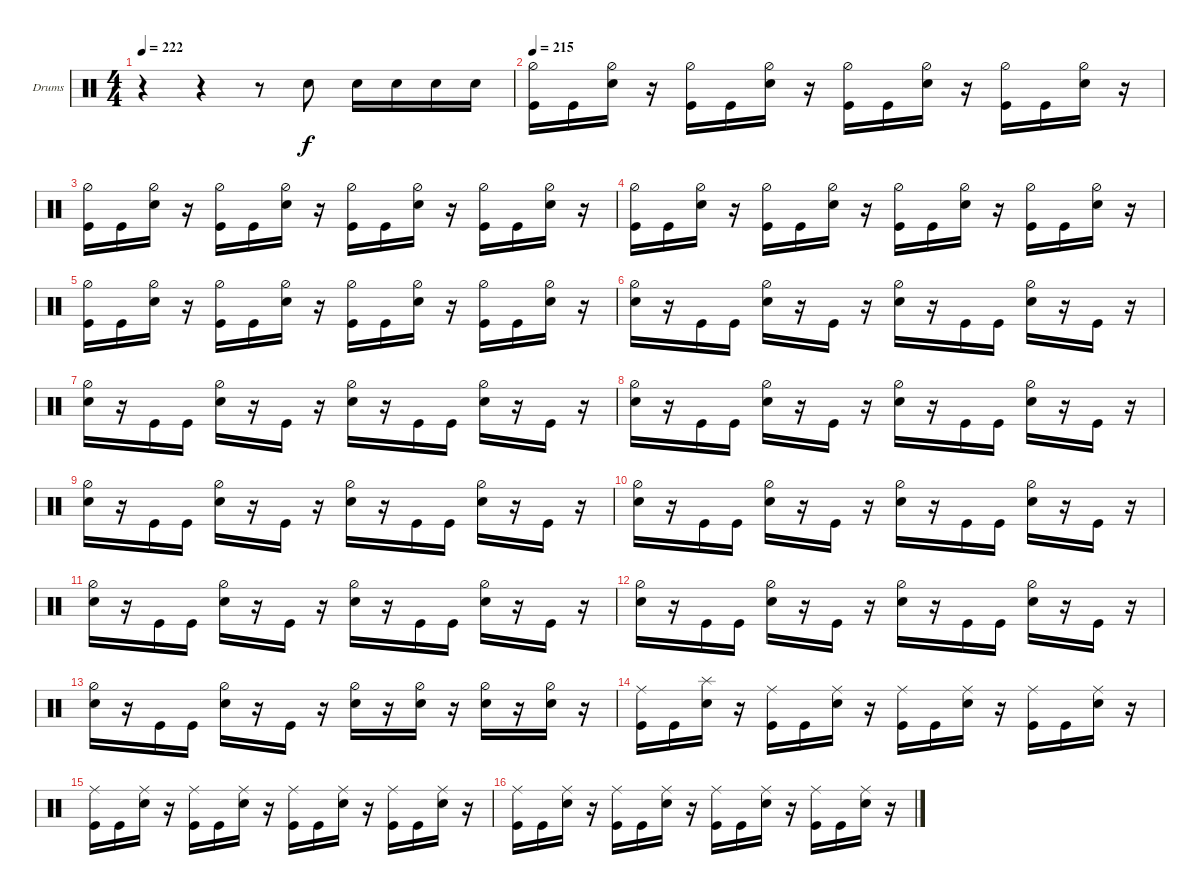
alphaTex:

\bracketExtendMode groupsimilarinstruments
\firstSystemTrackNameOrientation horizontal
\otherSystemsTrackNameOrientation horizontal
\track ("Drumkit" "Drums") {instrument percussion}
\staff {score}
\articulation defaults
\ts (4 4)
\tempo 222
\clef neutral
\ks c
r.4{dy f} r.4 r.8 "Snare (hit) 2".8 "Snare (hit) 2".16 "Snare (hit) 2".16 "Snare (hit) 2".16 "Snare (hit) 2".16 |
\tempo 215
("Kick (hit)" "Hi-Hat (half)").16 "Kick (hit)".16 ("Snare (hit) 2" "Hi-Hat (half)").16 r.16 ("Kick (hit)" "Hi-Hat (half)").16 "Kick (hit)".16 ("Snare (hit) 2" "Hi-Hat (half)").16 r.16 ("Kick (hit)" "Hi-Hat (half)").16 "Kick (hit)".16 ("Snare (hit) 2" "Hi-Hat (half)").16 r.16 ("Kick (hit)" "Hi-Hat (half)").16 "Kick (hit)".16 ("Snare (hit) 2" "Hi-Hat (half)").16 r.16 |
("Kick (hit)" "Hi-Hat (half)").16 "Kick (hit)".16 ("Snare (hit) 2" "Hi-Hat (half)").16 r.16 ("Kick (hit)" "Hi-Hat (half)").16 "Kick (hit)".16 ("Snare (hit) 2" "Hi-Hat (half)").16 r.16 ("Kick (hit)" "Hi-Hat (half)").16 "Kick (hit)".16 ("Snare (hit) 2" "Hi-Hat (half)").16 r.16 ("Kick (hit)" "Hi-Hat (half)").16 "Kick (hit)".16 ("Snare (hit) 2" "Hi-Hat (half)").16 r.16 |
("Kick (hit)" "Hi-Hat (half)").16 "Kick (hit)".16 ("Snare (hit) 2" "Hi-Hat (half)").16 r.16 ("Kick (hit)" "Hi-Hat (half)").16 "Kick (hit)".16 ("Snare (hit) 2" "Hi-Hat (half)").16 r.16 ("Kick (hit)" "Hi-Hat (half)").16 "Kick (hit)".16 ("Snare (hit) 2" "Hi-Hat (half)").16 r.16 ("Kick (hit)" "Hi-Hat (half)").16 "Kick (hit)".16 ("Snare (hit) 2" "Hi-Hat (half)").16 r.16 |
("Kick (hit)" "Hi-Hat (half)").16 "Kick (hit)".16 ("Snare (hit) 2" "Hi-Hat (half)").16 r.16 ("Kick (hit)" "Hi-Hat (half)").16 "Kick (hit)".16 ("Snare (hit) 2" "Hi-Hat (half)").16 r.16 ("Kick (hit)" "Hi-Hat (half)").16 "Kick (hit)".16 ("Snare (hit) 2" "Hi-Hat (half)").16 r.16 ("Kick (hit)" "Hi-Hat (half)").16 "Kick (hit)".16 ("Snare (hit) 2" "Hi-Hat (half)").16 r.16 |
("Snare (hit) 2" "Hi-Hat (half)").16 r.16 "Kick (hit)".16 "Kick (hit)".16 ("Snare (hit) 2" "Hi-Hat (half)").16 r.16 "Kick (hit)".16 r.16 ("Snare (hit) 2" "Hi-Hat (half)").16 r.16 "Kick (hit)".16 "Kick (hit)".16 ("Snare (hit) 2" "Hi-Hat (half)").16 r.16 "Kick (hit)".16 r.16 |
("Snare (hit) 2" "Hi-Hat (half)").16 r.16 "Kick (hit)".16 "Kick (hit)".16 ("Snare (hit) 2" "Hi-Hat (half)").16 r.16 "Kick (hit)".16 r.16 ("Snare (hit) 2" "Hi-Hat (half)").16 r.16 "Kick (hit)".16 "Kick (hit)".16 ("Snare (hit) 2" "Hi-Hat (half)").16 r.16 "Kick (hit)".16 r.16 |
("Snare (hit) 2" "Hi-Hat (half)").16 r.16 "Kick (hit)".16 "Kick (hit)".16 ("Snare (hit) 2" "Hi-Hat (half)").16 r.16 "Kick (hit)".16 r.16 ("Snare (hit) 2" "Hi-Hat (half)").16 r.16 "Kick (hit)".16 "Kick (hit)".16 ("Snare (hit) 2" "Hi-Hat (half)").16 r.16 "Kick (hit)".16 r.16 |
("Snare (hit) 2" "Hi-Hat (half)").16 r.16 "Kick (hit)".16 "Kick (hit)".16 ("Snare (hit) 2" "Hi-Hat (half)").16 r.16 "Kick (hit)".16 r.16 ("Snare (hit) 2" "Hi-Hat (half)").16 r.16 "Kick (hit)".16 "Kick (hit)".16 ("Snare (hit) 2" "Hi-Hat (half)").16 r.16 "Kick (hit)".16 r.16 |
("Snare (hit) 2" "Hi-Hat (half)").16 r.16 "Kick (hit)".16 "Kick (hit)".16 ("Snare (hit) 2" "Hi-Hat (half)").16 r.16 "Kick (hit)".16 r.16 ("Snare (hit) 2" "Hi-Hat (half)").16 r.16 "Kick (hit)".16 "Kick (hit)".16 ("Snare (hit) 2" "Hi-Hat (half)").16 r.16 "Kick (hit)".16 r.16 |
("Snare (hit) 2" "Hi-Hat (half)").16 r.16 "Kick (hit)".16 "Kick (hit)".16 ("Snare (hit) 2" "Hi-Hat (half)").16 r.16 "Kick (hit)".16 r.16 ("Snare (hit) 2" "Hi-Hat (half)").16 r.16 "Kick (hit)".16 "Kick (hit)".16 ("Snare (hit) 2" "Hi-Hat (half)").16 r.16 "Kick (hit)".16 r.16 |
("Snare (hit) 2" "Hi-Hat (half)").16 r.16 "Kick (hit)".16 "Kick (hit)".16 ("Snare (hit) 2" "Hi-Hat (half)").16 r.16 "Kick (hit)".16 r.16 ("Snare (hit) 2" "Hi-Hat (half)").16 r.16 "Kick (hit)".16 "Kick (hit)".16 ("Snare (hit) 2" "Hi-Hat (half)").16 r.16 "Kick (hit)".16 r.16 |
("Snare (hit) 2" "Hi-Hat (half)").16 r.16 "Kick (hit)".16 "Kick (hit)".16 ("Snare (hit) 2" "Hi-Hat (half)").16 r.16 "Kick (hit)".16 r.16 ("Snare (hit) 2" "Hi-Hat (half)").16 r.16 ("Hi-Hat (half)" "Snare (hit) 2").16 r.16 ("Snare (hit) 2" "Hi-Hat (half)").16 r.16 ("Hi-Hat (half)" "Snare (hit) 2").16 r.16 |
("Ride (middle)" "Kick (hit)").16 "Kick (hit)".16 ("Splash (hit)" "Snare (hit) 2").16 r.16 ("Kick (hit)" "Ride (middle)").16 "Kick (hit)".16 ("Snare (hit) 2" "Ride (middle)").16 r.16 ("Kick (hit)" "Ride (middle)").16 "Kick (hit)".16 ("Snare (hit) 2" "Ride (middle)").16 r.16 ("Kick (hit)" "Ride (middle)").16 "Kick (hit)".16 ("Snare (hit) 2" "Ride (middle)").16 r.16 |
("Ride (middle)" "Kick (hit)").16 "Kick (hit)".16 ("Snare (hit) 2" "Ride (middle)").16 r.16 ("Kick (hit)" "Ride (middle)").16 "Kick (hit)".16 ("Snare (hit) 2" "Ride (middle)").16 r.16 ("Kick (hit)" "Ride (middle)").16 "Kick (hit)".16 ("Snare (hit) 2" "Ride (middle)").16 r.16 ("Kick (hit)" "Ride (middle)").16 "Kick (hit)".16 ("Snare (hit) 2" "Ride (middle)").16 r.16 |
("Ride (middle)" "Kick (hit)").16 "Kick (hit)".16 ("Snare (hit) 2" "Ride (middle)").16 r.16 ("Kick (hit)" "Ride (middle)").16 "Kick (hit)".16 ("Snare (hit) 2" "Ride (middle)").16 r.16 ("Kick (hit)" "Ride (middle)").16 "Kick (hit)".16 ("Snare (hit) 2" "Ride (middle)").16 r.16 ("Kick (hit)" "Ride (middle)").16 "Kick (hit)".16 ("Snare (hit) 2" "Ride (middle)").16 r.16
